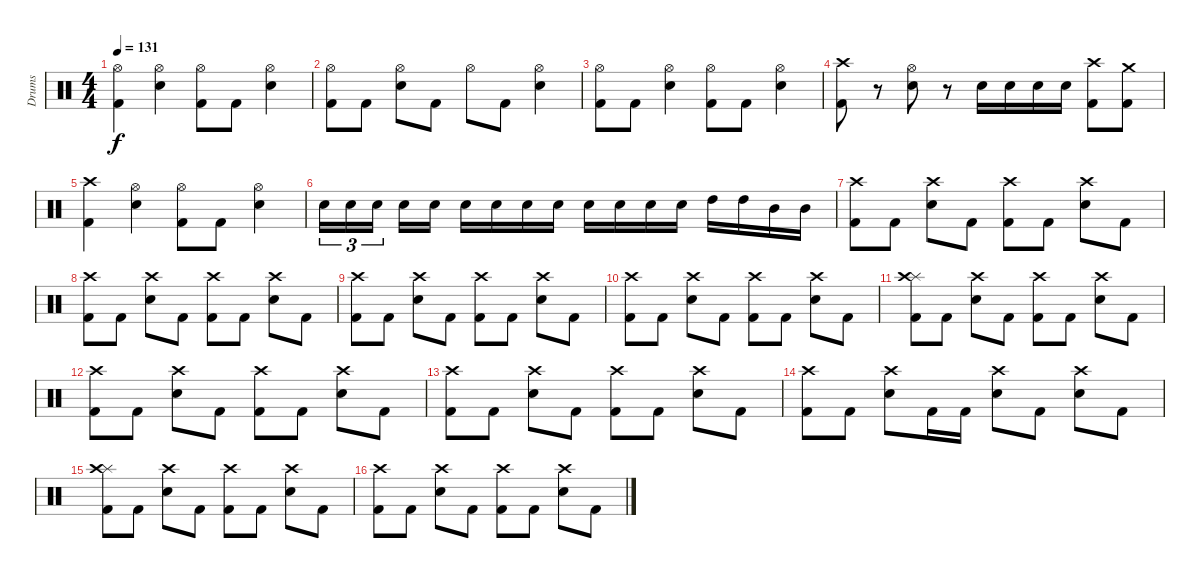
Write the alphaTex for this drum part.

\track ("Drums" "Drums") {instrument percussion}
\staff {score}
\articulation defaults
\ts (4 4)
\tempo 131
\clef neutral
\ks c
("Hi-Hat (open)" "Kick (hit) 2").4{dy f} ("Hi-Hat (open)" "Electric Snare (hit)").4 ("Hi-Hat (open)" "Kick (hit) 2").8 "Kick (hit) 2".8 ("Hi-Hat (open)" "Electric Snare (hit)").4 |
("Hi-Hat (open)" "Kick (hit) 2").8 "Kick (hit) 2".8 ("Hi-Hat (open)" "Electric Snare (hit)").8 "Kick (hit) 2".8 "Hi-Hat (open)".8 "Kick (hit) 2".8 ("Hi-Hat (open)" "Electric Snare (hit)").4 |
("Hi-Hat (open)" "Kick (hit) 2").8 "Kick (hit) 2".8 ("Hi-Hat (open)" "Electric Snare (hit)").4 ("Hi-Hat (open)" "Kick (hit) 2").8 "Kick (hit) 2".8 ("Hi-Hat (open)" "Electric Snare (hit)").4 |
("Crash high (hit)" "Kick (hit) 2").8 r.8 ("Hi-Hat (open)" "Electric Snare (hit)").8 r.8 "Electric Snare (hit)".16 "Electric Snare (hit)".16 "Electric Snare (hit)".16 "Electric Snare (hit)".16 ("Crash high (hit)" "Kick (hit) 2").8 ("Crash medium (hit)" "Kick (hit) 2").8 |
("Crash high (hit)" "Kick (hit) 2").4 ("Hi-Hat (open)" "Electric Snare (hit)").4 ("Hi-Hat (open)" "Kick (hit) 2").8 "Kick (hit) 2".8 ("Hi-Hat (open)" "Electric Snare (hit)").4 |
"Electric Snare (hit)".16{tu (3 2)} "Electric Snare (hit)".16{tu (3 2)} "Electric Snare (hit)".16{tu (3 2) beam splitsecondary} "Electric Snare (hit)".16 "Electric Snare (hit)".16 "Electric Snare (hit)".16 "Electric Snare (hit)".16 "Electric Snare (hit)".16 "Electric Snare (hit)".16 "Electric Snare (hit)".16 "Electric Snare (hit)".16 "Electric Snare (hit)".16 "Electric Snare (hit)".16 "High Tom (hit)".16 "High Tom (hit)".16 "Mid Tom (hit)".16 "Mid Tom (hit)".16 |
("Crash high (hit)" "Kick (hit) 2").8 "Kick (hit) 2".8 ("Crash high (hit)" "Electric Snare (hit)").8 "Kick (hit) 2".8 ("Crash high (hit)" "Kick (hit) 2").8 "Kick (hit) 2".8 ("Crash high (hit)" "Electric Snare (hit)").8 "Kick (hit) 2".8 |
("Crash high (hit)" "Kick (hit) 2").8 "Kick (hit) 2".8 ("Crash high (hit)" "Electric Snare (hit)").8 "Kick (hit) 2".8 ("Crash high (hit)" "Kick (hit) 2").8 "Kick (hit) 2".8 ("Crash high (hit)" "Electric Snare (hit)").8 "Kick (hit) 2".8 |
("Crash high (hit)" "Kick (hit) 2").8 "Kick (hit) 2".8 ("Crash high (hit)" "Electric Snare (hit)").8 "Kick (hit) 2".8 ("Crash high (hit)" "Kick (hit) 2").8 "Kick (hit) 2".8 ("Crash high (hit)" "Electric Snare (hit)").8 "Kick (hit) 2".8 |
("Crash high (hit)" "Kick (hit) 2").8 "Kick (hit) 2".8 ("Crash high (hit)" "Electric Snare (hit)").8 "Kick (hit) 2".8 ("Crash high (hit)" "Kick (hit) 2").8 "Kick (hit) 2".8 ("Crash high (hit)" "Electric Snare (hit)").8 "Kick (hit) 2".8 |
("Splash (hit)" "Crash high (hit)" "Kick (hit) 2").8 "Kick (hit) 2".8 ("Crash high (hit)" "Electric Snare (hit)").8 "Kick (hit) 2".8 ("Crash high (hit)" "Kick (hit) 2").8 "Kick (hit) 2".8 ("Crash high (hit)" "Electric Snare (hit)").8 "Kick (hit) 2".8 |
("Crash high (hit)" "Kick (hit) 2").8 "Kick (hit) 2".8 ("Crash high (hit)" "Electric Snare (hit)").8 "Kick (hit) 2".8 ("Crash high (hit)" "Kick (hit) 2").8 "Kick (hit) 2".8 ("Crash high (hit)" "Electric Snare (hit)").8 "Kick (hit) 2".8 |
("Crash high (hit)" "Kick (hit) 2").8 "Kick (hit) 2".8 ("Crash high (hit)" "Electric Snare (hit)").8 "Kick (hit) 2".8 ("Crash high (hit)" "Kick (hit) 2").8 "Kick (hit) 2".8 ("Crash high (hit)" "Electric Snare (hit)").8 "Kick (hit) 2".8 |
("Crash high (hit)" "Kick (hit) 2").8 "Kick (hit) 2".8 ("Crash high (hit)" "Electric Snare (hit)").8 "Kick (hit) 2".16 "Kick (hit) 2".16 ("Crash high (hit)" "Electric Snare (hit)").8 "Kick (hit) 2".8 ("Crash high (hit)" "Electric Snare (hit)").8 "Kick (hit) 2".8 |
("Splash (hit)" "Crash high (hit)" "Kick (hit) 2").8 "Kick (hit) 2".8 ("Crash high (hit)" "Electric Snare (hit)").8 "Kick (hit) 2".8 ("Crash high (hit)" "Kick (hit) 2").8 "Kick (hit) 2".8 ("Crash high (hit)" "Electric Snare (hit)").8 "Kick (hit) 2".8 |
("Crash high (hit)" "Kick (hit) 2").8 "Kick (hit) 2".8 ("Crash high (hit)" "Electric Snare (hit)").8 "Kick (hit) 2".8 ("Crash high (hit)" "Kick (hit) 2").8 "Kick (hit) 2".8 ("Crash high (hit)" "Electric Snare (hit)").8 "Kick (hit) 2".8
